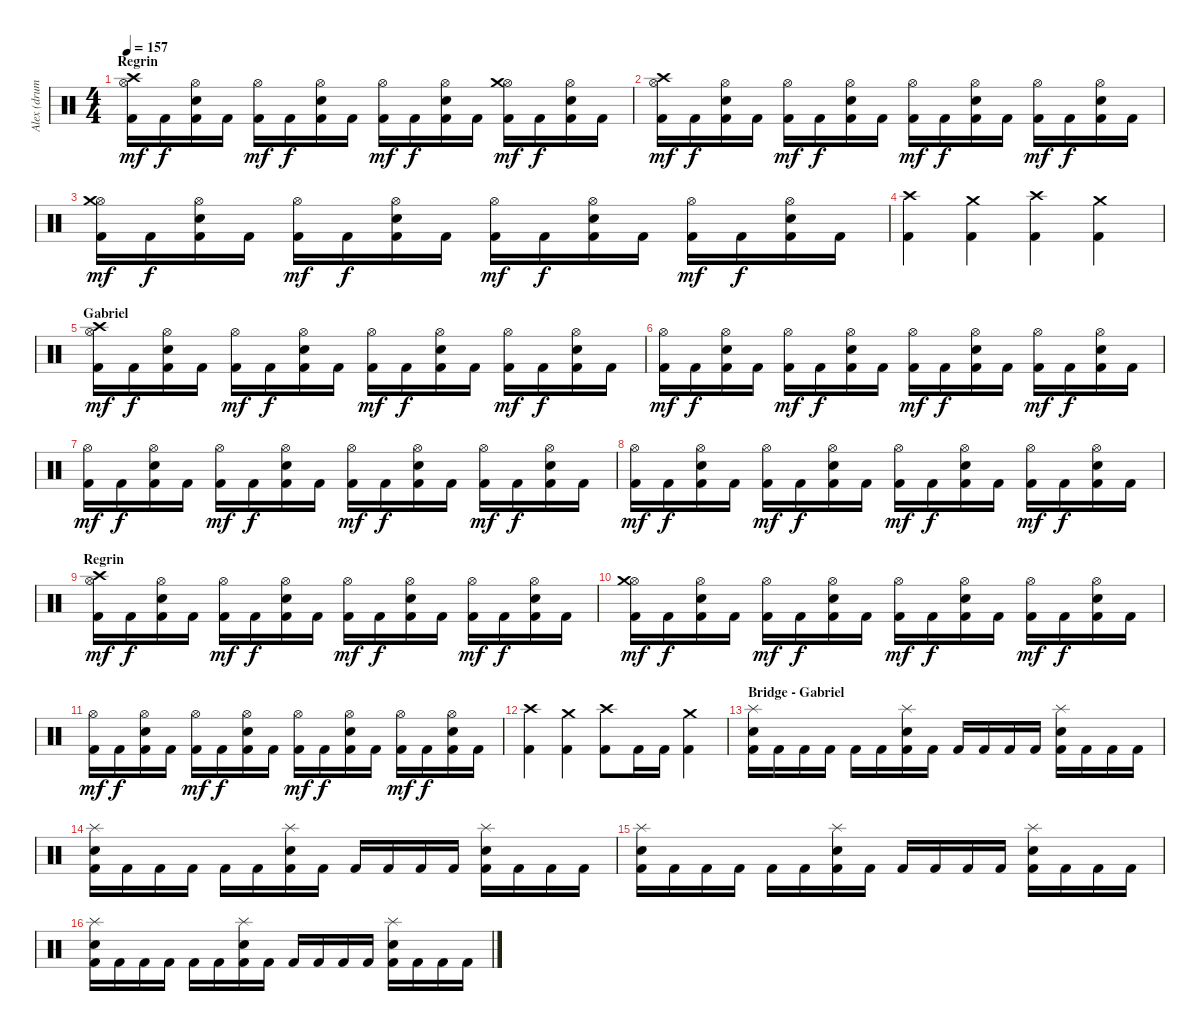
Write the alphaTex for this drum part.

\track ("Alex (drums)" "Alex (drum") {instrument percussion}
\staff {score}
\articulation defaults
\ts (4 4)
\section ("" "Regrin")
\tempo 157
\clef neutral
\ks c
("Hi-Hat (open)" "Kick (hit) 2" "Crash high (hit)").16{dy mf} "Kick (hit) 2".16{dy f} ("Hi-Hat (open)" "Snare (hit) 2" "Kick (hit) 2").16 "Kick (hit) 2".16 ("Hi-Hat (open)" "Kick (hit) 2").16{dy mf} "Kick (hit) 2".16{dy f} ("Hi-Hat (open)" "Snare (hit) 2" "Kick (hit) 2").16 "Kick (hit) 2".16 ("Hi-Hat (open)" "Kick (hit) 2").16{dy mf} "Kick (hit) 2".16{dy f} ("Hi-Hat (open)" "Snare (hit) 2" "Kick (hit) 2").16 "Kick (hit) 2".16 ("Hi-Hat (open)" "Kick (hit) 2" "Crash medium (hit)").16{dy mf} "Kick (hit) 2".16{dy f} ("Hi-Hat (open)" "Snare (hit) 2" "Kick (hit) 2").16 "Kick (hit) 2".16 |
("Hi-Hat (open)" "Kick (hit) 2" "Crash high (hit)").16{dy mf} "Kick (hit) 2".16{dy f} ("Hi-Hat (open)" "Snare (hit) 2" "Kick (hit) 2").16 "Kick (hit) 2".16 ("Hi-Hat (open)" "Kick (hit) 2").16{dy mf} "Kick (hit) 2".16{dy f} ("Hi-Hat (open)" "Snare (hit) 2" "Kick (hit) 2").16 "Kick (hit) 2".16 ("Hi-Hat (open)" "Kick (hit) 2").16{dy mf} "Kick (hit) 2".16{dy f} ("Hi-Hat (open)" "Snare (hit) 2" "Kick (hit) 2").16 "Kick (hit) 2".16 ("Hi-Hat (open)" "Kick (hit) 2").16{dy mf} "Kick (hit) 2".16{dy f} ("Hi-Hat (open)" "Snare (hit) 2" "Kick (hit) 2").16 "Kick (hit) 2".16 |
("Hi-Hat (open)" "Kick (hit) 2" "Crash medium (hit)").16{dy mf} "Kick (hit) 2".16{dy f} ("Hi-Hat (open)" "Snare (hit) 2" "Kick (hit) 2").16 "Kick (hit) 2".16 ("Hi-Hat (open)" "Kick (hit) 2").16{dy mf} "Kick (hit) 2".16{dy f} ("Hi-Hat (open)" "Snare (hit) 2" "Kick (hit) 2").16 "Kick (hit) 2".16 ("Hi-Hat (open)" "Kick (hit) 2").16{dy mf} "Kick (hit) 2".16{dy f} ("Hi-Hat (open)" "Snare (hit) 2" "Kick (hit) 2").16 "Kick (hit) 2".16 ("Hi-Hat (open)" "Kick (hit) 2").16{dy mf} "Kick (hit) 2".16{dy f} ("Hi-Hat (open)" "Snare (hit) 2" "Kick (hit) 2").16 "Kick (hit) 2".16 |
("Kick (hit) 2" "Crash high (hit)").4 ("Kick (hit) 2" "Crash medium (hit)").4 ("Kick (hit) 2" "Crash high (hit)").4 ("Kick (hit) 2" "Crash medium (hit)").4 |
\section ("" "Gabriel")
("Hi-Hat (open)" "Kick (hit) 2" "Crash high (hit)").16{dy mf} "Kick (hit) 2".16{dy f} ("Hi-Hat (open)" "Snare (hit) 2" "Kick (hit) 2").16 "Kick (hit) 2".16 ("Hi-Hat (open)" "Kick (hit) 2").16{dy mf} "Kick (hit) 2".16{dy f} ("Hi-Hat (open)" "Snare (hit) 2" "Kick (hit) 2").16 "Kick (hit) 2".16 ("Hi-Hat (open)" "Kick (hit) 2").16{dy mf} "Kick (hit) 2".16{dy f} ("Hi-Hat (open)" "Snare (hit) 2" "Kick (hit) 2").16 "Kick (hit) 2".16 ("Hi-Hat (open)" "Kick (hit) 2").16{dy mf} "Kick (hit) 2".16{dy f} ("Hi-Hat (open)" "Snare (hit) 2" "Kick (hit) 2").16 "Kick (hit) 2".16 |
("Hi-Hat (open)" "Kick (hit) 2").16{dy mf} "Kick (hit) 2".16{dy f} ("Hi-Hat (open)" "Snare (hit) 2" "Kick (hit) 2").16 "Kick (hit) 2".16 ("Hi-Hat (open)" "Kick (hit) 2").16{dy mf} "Kick (hit) 2".16{dy f} ("Hi-Hat (open)" "Snare (hit) 2" "Kick (hit) 2").16 "Kick (hit) 2".16 ("Hi-Hat (open)" "Kick (hit) 2").16{dy mf} "Kick (hit) 2".16{dy f} ("Hi-Hat (open)" "Snare (hit) 2" "Kick (hit) 2").16 "Kick (hit) 2".16 ("Hi-Hat (open)" "Kick (hit) 2").16{dy mf} "Kick (hit) 2".16{dy f} ("Hi-Hat (open)" "Snare (hit) 2" "Kick (hit) 2").16 "Kick (hit) 2".16 |
("Hi-Hat (open)" "Kick (hit) 2").16{dy mf} "Kick (hit) 2".16{dy f} ("Hi-Hat (open)" "Snare (hit) 2" "Kick (hit) 2").16 "Kick (hit) 2".16 ("Hi-Hat (open)" "Kick (hit) 2").16{dy mf} "Kick (hit) 2".16{dy f} ("Hi-Hat (open)" "Snare (hit) 2" "Kick (hit) 2").16 "Kick (hit) 2".16 ("Hi-Hat (open)" "Kick (hit) 2").16{dy mf} "Kick (hit) 2".16{dy f} ("Hi-Hat (open)" "Snare (hit) 2" "Kick (hit) 2").16 "Kick (hit) 2".16 ("Hi-Hat (open)" "Kick (hit) 2").16{dy mf} "Kick (hit) 2".16{dy f} ("Hi-Hat (open)" "Snare (hit) 2" "Kick (hit) 2").16 "Kick (hit) 2".16 |
("Hi-Hat (open)" "Kick (hit) 2").16{dy mf} "Kick (hit) 2".16{dy f} ("Hi-Hat (open)" "Snare (hit) 2" "Kick (hit) 2").16 "Kick (hit) 2".16 ("Hi-Hat (open)" "Kick (hit) 2").16{dy mf} "Kick (hit) 2".16{dy f} ("Hi-Hat (open)" "Snare (hit) 2" "Kick (hit) 2").16 "Kick (hit) 2".16 ("Hi-Hat (open)" "Kick (hit) 2").16{dy mf} "Kick (hit) 2".16{dy f} ("Hi-Hat (open)" "Snare (hit) 2" "Kick (hit) 2").16 "Kick (hit) 2".16 ("Hi-Hat (open)" "Kick (hit) 2").16{dy mf} "Kick (hit) 2".16{dy f} ("Hi-Hat (open)" "Snare (hit) 2" "Kick (hit) 2").16 "Kick (hit) 2".16 |
\section ("" "Regrin")
("Hi-Hat (open)" "Kick (hit) 2" "Crash high (hit)").16{dy mf} "Kick (hit) 2".16{dy f} ("Hi-Hat (open)" "Snare (hit) 2" "Kick (hit) 2").16 "Kick (hit) 2".16 ("Hi-Hat (open)" "Kick (hit) 2").16{dy mf} "Kick (hit) 2".16{dy f} ("Hi-Hat (open)" "Snare (hit) 2" "Kick (hit) 2").16 "Kick (hit) 2".16 ("Hi-Hat (open)" "Kick (hit) 2").16{dy mf} "Kick (hit) 2".16{dy f} ("Hi-Hat (open)" "Snare (hit) 2" "Kick (hit) 2").16 "Kick (hit) 2".16 ("Hi-Hat (open)" "Kick (hit) 2").16{dy mf} "Kick (hit) 2".16{dy f} ("Hi-Hat (open)" "Snare (hit) 2" "Kick (hit) 2").16 "Kick (hit) 2".16 |
("Hi-Hat (open)" "Kick (hit) 2" "Crash medium (hit)").16{dy mf} "Kick (hit) 2".16{dy f} ("Hi-Hat (open)" "Snare (hit) 2" "Kick (hit) 2").16 "Kick (hit) 2".16 ("Hi-Hat (open)" "Kick (hit) 2").16{dy mf} "Kick (hit) 2".16{dy f} ("Hi-Hat (open)" "Snare (hit) 2" "Kick (hit) 2").16 "Kick (hit) 2".16 ("Hi-Hat (open)" "Kick (hit) 2").16{dy mf} "Kick (hit) 2".16{dy f} ("Hi-Hat (open)" "Snare (hit) 2" "Kick (hit) 2").16 "Kick (hit) 2".16 ("Hi-Hat (open)" "Kick (hit) 2").16{dy mf} "Kick (hit) 2".16{dy f} ("Hi-Hat (open)" "Snare (hit) 2" "Kick (hit) 2").16 "Kick (hit) 2".16 |
("Hi-Hat (open)" "Kick (hit) 2").16{dy mf} "Kick (hit) 2".16{dy f} ("Hi-Hat (open)" "Snare (hit) 2" "Kick (hit) 2").16 "Kick (hit) 2".16 ("Hi-Hat (open)" "Kick (hit) 2").16{dy mf} "Kick (hit) 2".16{dy f} ("Hi-Hat (open)" "Snare (hit) 2" "Kick (hit) 2").16 "Kick (hit) 2".16 ("Hi-Hat (open)" "Kick (hit) 2").16{dy mf} "Kick (hit) 2".16{dy f} ("Hi-Hat (open)" "Snare (hit) 2" "Kick (hit) 2").16 "Kick (hit) 2".16 ("Hi-Hat (open)" "Kick (hit) 2").16{dy mf} "Kick (hit) 2".16{dy f} ("Hi-Hat (open)" "Snare (hit) 2" "Kick (hit) 2").16 "Kick (hit) 2".16 |
("Kick (hit) 2" "Crash high (hit)").4 ("Kick (hit) 2" "Crash medium (hit)").4 ("Kick (hit) 2" "Crash high (hit)").8 "Kick (hit) 2".16 "Kick (hit) 2".16 ("Kick (hit) 2" "Crash medium (hit)").4 |
\section ("" "Bridge - Gabriel")
("Snare (hit) 2" "Kick (hit) 2" "Splash (hit)").16 "Kick (hit) 2".16 "Kick (hit) 2".16 "Kick (hit) 2".16 "Kick (hit) 2".16 "Kick (hit) 2".16 ("Snare (hit) 2" "Kick (hit) 2" "Splash (hit)").16 "Kick (hit) 2".16 "Kick (hit) 2".16 "Kick (hit) 2".16 "Kick (hit) 2".16 "Kick (hit) 2".16 ("Snare (hit) 2" "Kick (hit) 2" "Splash (hit)").16 "Kick (hit) 2".16 "Kick (hit) 2".16 "Kick (hit) 2".16 |
("Snare (hit) 2" "Kick (hit) 2" "Splash (hit)").16 "Kick (hit) 2".16 "Kick (hit) 2".16 "Kick (hit) 2".16 "Kick (hit) 2".16 "Kick (hit) 2".16 ("Snare (hit) 2" "Kick (hit) 2" "Splash (hit)").16 "Kick (hit) 2".16 "Kick (hit) 2".16 "Kick (hit) 2".16 "Kick (hit) 2".16 "Kick (hit) 2".16 ("Snare (hit) 2" "Kick (hit) 2" "Splash (hit)").16 "Kick (hit) 2".16 "Kick (hit) 2".16 "Kick (hit) 2".16 |
("Snare (hit) 2" "Kick (hit) 2" "Splash (hit)").16 "Kick (hit) 2".16 "Kick (hit) 2".16 "Kick (hit) 2".16 "Kick (hit) 2".16 "Kick (hit) 2".16 ("Snare (hit) 2" "Kick (hit) 2" "Splash (hit)").16 "Kick (hit) 2".16 "Kick (hit) 2".16 "Kick (hit) 2".16 "Kick (hit) 2".16 "Kick (hit) 2".16 ("Snare (hit) 2" "Kick (hit) 2" "Splash (hit)").16 "Kick (hit) 2".16 "Kick (hit) 2".16 "Kick (hit) 2".16 |
("Snare (hit) 2" "Kick (hit) 2" "Splash (hit)").16 "Kick (hit) 2".16 "Kick (hit) 2".16 "Kick (hit) 2".16 "Kick (hit) 2".16 "Kick (hit) 2".16 ("Snare (hit) 2" "Kick (hit) 2" "Splash (hit)").16 "Kick (hit) 2".16 "Kick (hit) 2".16 "Kick (hit) 2".16 "Kick (hit) 2".16 "Kick (hit) 2".16 ("Snare (hit) 2" "Kick (hit) 2" "Splash (hit)").16 "Kick (hit) 2".16 "Kick (hit) 2".16 "Kick (hit) 2".16
